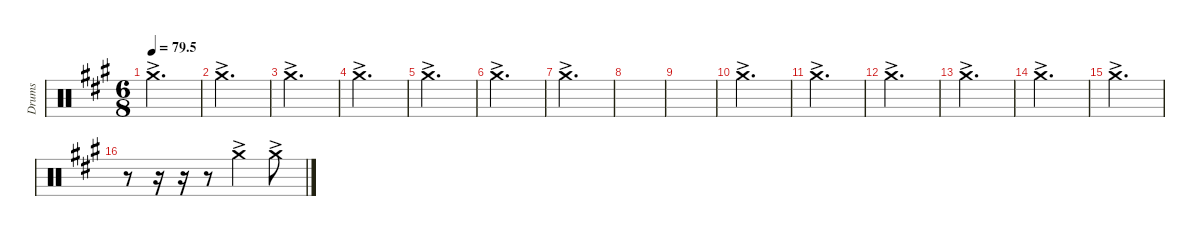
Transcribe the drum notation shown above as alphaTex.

\defaultSystemsLayout 4
\hideDynamics
\bracketExtendMode nobrackets
\otherSystemsTrackNameOrientation horizontal
\track ("Right crash" "Drums") {instrument percussion}
\staff {score}
\articulation defaults
\ts (6 8)
\tempo
79.5
\accidentals auto
\clef neutral
\ottava regular
\simile none
\scale
0.333333
\ks a "Crash medium (hit)"{ac acc forcenatural}.2{d dy f}
|
\scale
0.333333 "Crash medium (hit)"{ac acc forcenatural}.2{d} |
\scale
0.333333 "Crash medium (hit)"{ac acc forcenatural}.2{d} |
\scale
0.333333 "Crash medium (hit)"{ac acc forcenatural}.2{d} |
\scale
0.333333 "Crash medium (hit)"{ac acc forcenatural}.2{d} |
\scale
0.333333 "Crash medium (hit)"{ac acc forcenatural}.2{d} |
\scale
0.333333 "Crash medium (hit)"{ac acc forcenatural}.2{d} |
\scale
0.333333 |
\scale
0.333333 |
\scale
0.333333 "Crash medium (hit)"{ac acc forcenatural}.2{d} |
\scale
0.333333 "Crash medium (hit)"{ac acc forcenatural}.2{d} |
\scale
0.333333 "Crash medium (hit)"{ac acc forcenatural}.2{d} |
\scale
0.333333 "Crash medium (hit)"{ac acc forcenatural}.2{d} |
\scale
0.333333 "Crash medium (hit)"{ac acc forcenatural}.2{d} |
\scale
0.333333 "Crash medium (hit)"{ac acc forcenatural}.2{d} |
\scale
0.333333 r.8 r.16 r.16 r.8 "Crash medium (hit)"{ac acc forcenatural}.4 "Crash medium (hit)"{ac acc forcenatural}.8
